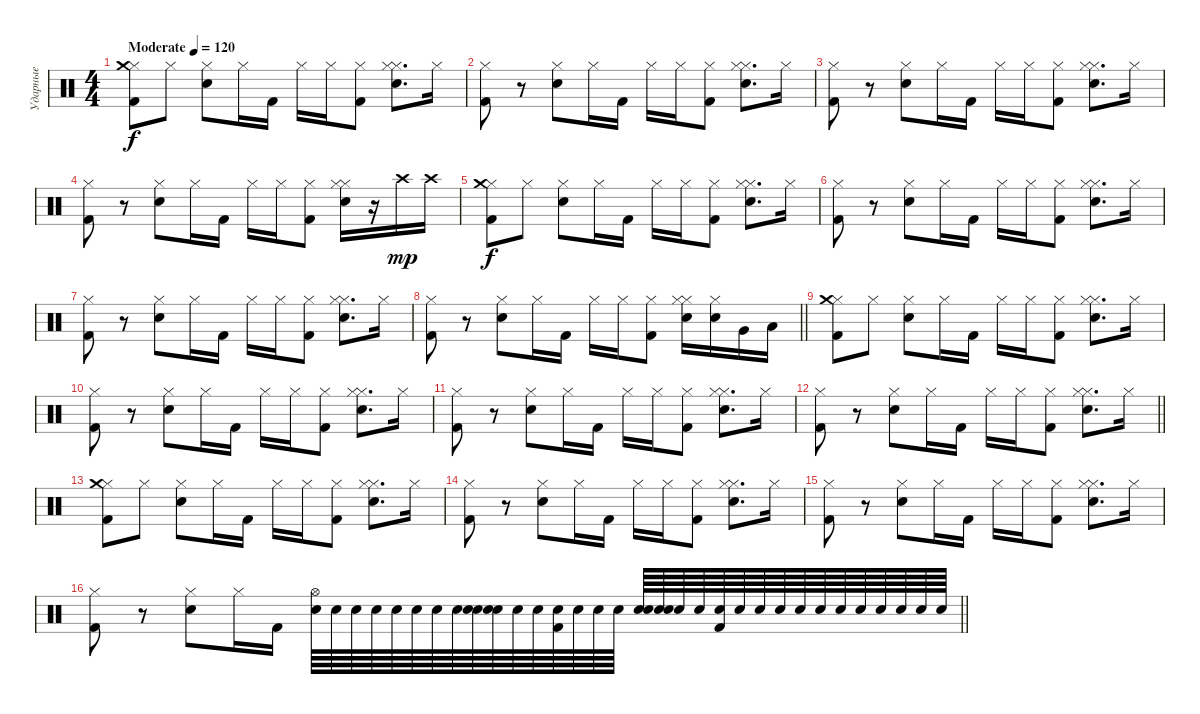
\track ("Ударные" "Ударные") {instrument percussion}
\staff {score}
\articulation defaults
\ts (4 4)
\tempo (120 "Moderate")
\clef neutral
\ks c
("Hi-Hat (closed)" "Crash medium (hit)" "Kick (hit) 2").8{dy f} "Hi-Hat (closed)".8 ("Hi-Hat (closed)" "Snare (hit) 2").8 "Hi-Hat (closed)".16 "Kick (hit) 2".16 "Hi-Hat (closed)".16 "Hi-Hat (closed)".16 ("Hi-Hat (closed)" "Kick (hit) 2").8 ("Hi-Hat (closed)" "Hi-Hat (closed)" "Snare (hit) 2").8{d} "Hi-Hat (closed)".16 |
("Hi-Hat (closed)" "Kick (hit) 2").8 r.8 ("Hi-Hat (closed)" "Snare (hit) 2").8 "Hi-Hat (closed)".16 "Kick (hit) 2".16 "Hi-Hat (closed)".16 "Hi-Hat (closed)".16 ("Hi-Hat (closed)" "Kick (hit) 2").8 ("Hi-Hat (closed)" "Hi-Hat (closed)" "Snare (hit) 2").8{d} "Hi-Hat (closed)".16 |
("Hi-Hat (closed)" "Kick (hit) 2").8 r.8 ("Hi-Hat (closed)" "Snare (hit) 2").8 "Hi-Hat (closed)".16 "Kick (hit) 2".16 "Hi-Hat (closed)".16 "Hi-Hat (closed)".16 ("Hi-Hat (closed)" "Kick (hit) 2").8 ("Hi-Hat (closed)" "Hi-Hat (closed)" "Snare (hit) 2").8{d} "Hi-Hat (closed)".16 |
("Hi-Hat (closed)" "Kick (hit) 2").8 r.8 ("Hi-Hat (closed)" "Snare (hit) 2").8 "Hi-Hat (closed)".16 "Kick (hit) 2".16 "Hi-Hat (closed)".16 "Hi-Hat (closed)".16 ("Hi-Hat (closed)" "Kick (hit) 2").8 ("Hi-Hat (closed)" "Hi-Hat (closed)" "Snare (hit) 2").16 r.16 "Crash high (hit)".16{dy mp} "Crash high (hit)".16 |
("Hi-Hat (closed)" "Crash medium (hit)" "Kick (hit) 2").8{dy f} "Hi-Hat (closed)".8 ("Hi-Hat (closed)" "Snare (hit) 2").8 "Hi-Hat (closed)".16 "Kick (hit) 2".16 "Hi-Hat (closed)".16 "Hi-Hat (closed)".16 ("Hi-Hat (closed)" "Kick (hit) 2").8 ("Hi-Hat (closed)" "Hi-Hat (closed)" "Snare (hit) 2").8{d} "Hi-Hat (closed)".16 |
("Hi-Hat (closed)" "Kick (hit) 2").8 r.8 ("Hi-Hat (closed)" "Snare (hit) 2").8 "Hi-Hat (closed)".16 "Kick (hit) 2".16 "Hi-Hat (closed)".16 "Hi-Hat (closed)".16 ("Hi-Hat (closed)" "Kick (hit) 2").8 ("Hi-Hat (closed)" "Hi-Hat (closed)" "Snare (hit) 2").8{d} "Hi-Hat (closed)".16 |
("Hi-Hat (closed)" "Kick (hit) 2").8 r.8 ("Hi-Hat (closed)" "Snare (hit) 2").8 "Hi-Hat (closed)".16 "Kick (hit) 2".16 "Hi-Hat (closed)".16 "Hi-Hat (closed)".16 ("Hi-Hat (closed)" "Kick (hit) 2").8 ("Hi-Hat (closed)" "Hi-Hat (closed)" "Snare (hit) 2").8{d} "Hi-Hat (closed)".16 |
\barLineRight lightlight
("Hi-Hat (closed)" "Kick (hit) 2").8 r.8 ("Hi-Hat (closed)" "Snare (hit) 2").8 "Hi-Hat (closed)".16 "Kick (hit) 2".16 "Hi-Hat (closed)".16 "Hi-Hat (closed)".16 ("Hi-Hat (closed)" "Kick (hit) 2").8 ("Hi-Hat (closed)" "Hi-Hat (closed)" "Snare (hit) 2").16 ("Hi-Hat (closed)" "Snare (hit) 2").16 "Very Low Tom (hit)".16 "Low Floor Tom (hit)".16 |
("Hi-Hat (closed)" "Crash medium (hit)" "Kick (hit) 2").8 "Hi-Hat (closed)".8 ("Hi-Hat (closed)" "Snare (hit) 2").8 "Hi-Hat (closed)".16 "Kick (hit) 2".16 "Hi-Hat (closed)".16 "Hi-Hat (closed)".16 ("Hi-Hat (closed)" "Kick (hit) 2").8 ("Hi-Hat (closed)" "Hi-Hat (closed)" "Snare (hit) 2").8{d} "Hi-Hat (closed)".16 |
("Hi-Hat (closed)" "Kick (hit) 2").8 r.8 ("Hi-Hat (closed)" "Snare (hit) 2").8 "Hi-Hat (closed)".16 "Kick (hit) 2".16 "Hi-Hat (closed)".16 "Hi-Hat (closed)".16 ("Hi-Hat (closed)" "Kick (hit) 2").8 ("Hi-Hat (closed)" "Hi-Hat (closed)" "Snare (hit) 2").8{d} "Hi-Hat (closed)".16 |
("Hi-Hat (closed)" "Kick (hit) 2").8 r.8 ("Hi-Hat (closed)" "Snare (hit) 2").8 "Hi-Hat (closed)".16 "Kick (hit) 2".16 "Hi-Hat (closed)".16 "Hi-Hat (closed)".16 ("Hi-Hat (closed)" "Kick (hit) 2").8 ("Hi-Hat (closed)" "Hi-Hat (closed)" "Snare (hit) 2").8{d} "Hi-Hat (closed)".16 |
\barLineRight lightlight
("Hi-Hat (closed)" "Kick (hit) 2").8 r.8 ("Hi-Hat (closed)" "Snare (hit) 2").8 "Hi-Hat (closed)".16 "Kick (hit) 2".16 "Hi-Hat (closed)".16 "Hi-Hat (closed)".16 ("Hi-Hat (closed)" "Kick (hit) 2").8 ("Hi-Hat (closed)" "Hi-Hat (closed)" "Snare (hit) 2").8{d} "Hi-Hat (closed)".16 |
("Hi-Hat (closed)" "Crash medium (hit)" "Kick (hit) 2").8 "Hi-Hat (closed)".8 ("Hi-Hat (closed)" "Snare (hit) 2").8 "Hi-Hat (closed)".16 "Kick (hit) 2".16 "Hi-Hat (closed)".16 "Hi-Hat (closed)".16 ("Hi-Hat (closed)" "Kick (hit) 2").8 ("Hi-Hat (closed)" "Hi-Hat (closed)" "Snare (hit) 2").8{d} "Hi-Hat (closed)".16 |
("Hi-Hat (closed)" "Kick (hit) 2").8 r.8 ("Hi-Hat (closed)" "Snare (hit) 2").8 "Hi-Hat (closed)".16 "Kick (hit) 2".16 "Hi-Hat (closed)".16 "Hi-Hat (closed)".16 ("Hi-Hat (closed)" "Kick (hit) 2").8 ("Hi-Hat (closed)" "Hi-Hat (closed)" "Snare (hit) 2").8{d} "Hi-Hat (closed)".16 |
("Hi-Hat (closed)" "Kick (hit) 2").8 r.8 ("Hi-Hat (closed)" "Snare (hit) 2").8 "Hi-Hat (closed)".16 "Kick (hit) 2".16 "Hi-Hat (closed)".16 "Hi-Hat (closed)".16 ("Hi-Hat (closed)" "Kick (hit) 2").8 ("Hi-Hat (closed)" "Hi-Hat (closed)" "Snare (hit) 2").8{d} "Hi-Hat (closed)".16 |
\barLineRight lightlight
("Hi-Hat (closed)" "Kick (hit) 2").8 r.8 ("Hi-Hat (closed)" "Snare (hit) 2").8 "Hi-Hat (closed)".16 "Kick (hit) 2".16 ("Hi-Hat (open)" "Snare (hit)").64 "Snare (hit)".64 "Snare (hit)".64 "Snare (hit)".64 "Snare (hit)".64 "Snare (hit)".64 "Snare (hit)".64 "Snare (hit)".64 ("Snare (hit) 2" "Snare (hit)").64 ("Snare (hit) 2" "Snare (hit)").64 "Snare (hit)".64 "Snare (hit)".64 ("Kick (hit) 2" "Snare (hit)").64 "Snare (hit)".64 "Snare (hit)".64 "Snare (hit)".64 ("Snare (hit) 2" "Snare (hit)").64 ("Snare (hit) 2" "Snare (hit)").64 "Snare (hit)".64 "Snare (hit)".64 ("Kick (hit) 2" "Snare (hit)").64 "Snare (hit)".64 "Snare (hit)".64 "Snare (hit)".64 "Snare (hit)".64 "Snare (hit)".64 "Snare (hit)".64 "Snare (hit)".64 "Snare (hit)".64 "Snare (hit)".64 "Snare (hit)".64 "Snare (hit)".64
